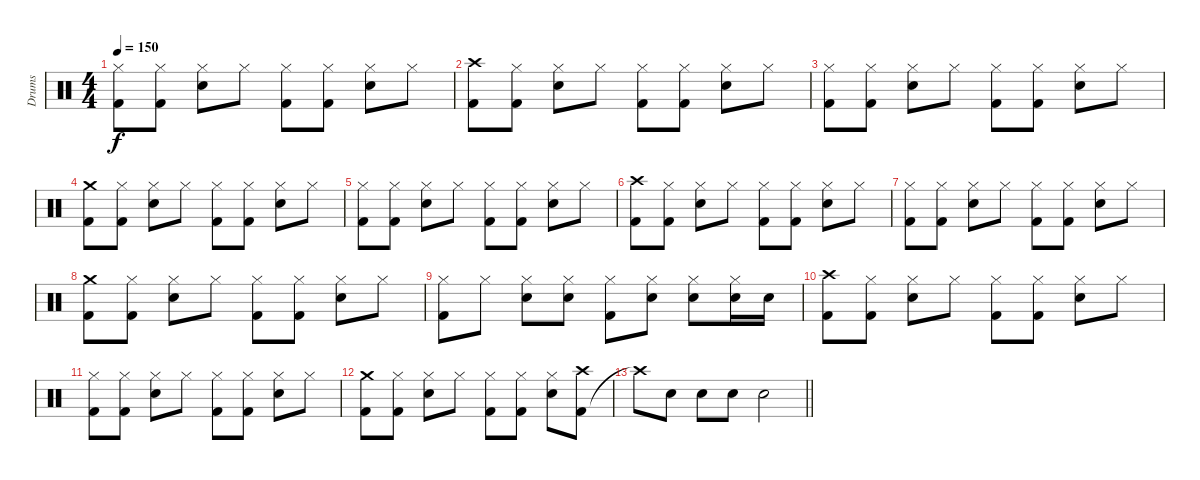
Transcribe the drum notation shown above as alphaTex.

\track ("Drums" "Drums") {instrument percussion}
\staff {score}
\articulation defaults
\ts (4 4)
\tempo 150
\clef neutral
\ks c
("Kick (hit) 2" "Hi-Hat (closed)").8{dy f} ("Kick (hit) 2" "Hi-Hat (closed)").8 ("Hi-Hat (closed)" "Snare (hit) 2").8 "Hi-Hat (closed)".8 ("Kick (hit) 2" "Hi-Hat (closed)").8 ("Kick (hit) 2" "Hi-Hat (closed)").8 ("Hi-Hat (closed)" "Snare (hit) 2").8 "Hi-Hat (closed)".8 |
("Kick (hit) 2" "Crash high (hit)").8 ("Kick (hit) 2" "Hi-Hat (closed)").8 ("Hi-Hat (closed)" "Snare (hit) 2").8 "Hi-Hat (closed)".8 ("Kick (hit) 2" "Hi-Hat (closed)").8 ("Kick (hit) 2" "Hi-Hat (closed)").8 ("Hi-Hat (closed)" "Snare (hit) 2").8 "Hi-Hat (closed)".8 |
("Kick (hit) 2" "Hi-Hat (closed)").8 ("Kick (hit) 2" "Hi-Hat (closed)").8 ("Hi-Hat (closed)" "Snare (hit) 2").8 "Hi-Hat (closed)".8 ("Kick (hit) 2" "Hi-Hat (closed)").8 ("Kick (hit) 2" "Hi-Hat (closed)").8 ("Hi-Hat (closed)" "Snare (hit) 2").8 "Hi-Hat (closed)".8 |
("Kick (hit) 2" "Crash medium (hit)").8 ("Kick (hit) 2" "Hi-Hat (closed)").8 ("Hi-Hat (closed)" "Snare (hit) 2").8 "Hi-Hat (closed)".8 ("Kick (hit) 2" "Hi-Hat (closed)").8 ("Kick (hit) 2" "Hi-Hat (closed)").8 ("Hi-Hat (closed)" "Snare (hit) 2").8 "Hi-Hat (closed)".8 |
("Kick (hit) 2" "Hi-Hat (closed)").8 ("Kick (hit) 2" "Hi-Hat (closed)").8 ("Hi-Hat (closed)" "Snare (hit) 2").8 "Hi-Hat (closed)".8 ("Kick (hit) 2" "Hi-Hat (closed)").8 ("Kick (hit) 2" "Hi-Hat (closed)").8 ("Hi-Hat (closed)" "Snare (hit) 2").8 "Hi-Hat (closed)".8 |
("Kick (hit) 2" "Crash high (hit)").8 ("Kick (hit) 2" "Hi-Hat (closed)").8 ("Hi-Hat (closed)" "Snare (hit) 2").8 "Hi-Hat (closed)".8 ("Kick (hit) 2" "Hi-Hat (closed)").8 ("Kick (hit) 2" "Hi-Hat (closed)").8 ("Hi-Hat (closed)" "Snare (hit) 2").8 "Hi-Hat (closed)".8 |
("Kick (hit) 2" "Hi-Hat (closed)").8 ("Kick (hit) 2" "Hi-Hat (closed)").8 ("Hi-Hat (closed)" "Snare (hit) 2").8 "Hi-Hat (closed)".8 ("Kick (hit) 2" "Hi-Hat (closed)").8 ("Kick (hit) 2" "Hi-Hat (closed)").8 ("Hi-Hat (closed)" "Snare (hit) 2").8 "Hi-Hat (closed)".8 |
("Kick (hit) 2" "Crash medium (hit)").8 ("Kick (hit) 2" "Hi-Hat (closed)").8 ("Hi-Hat (closed)" "Snare (hit) 2").8 "Hi-Hat (closed)".8 ("Kick (hit) 2" "Hi-Hat (closed)").8 ("Kick (hit) 2" "Hi-Hat (closed)").8 ("Hi-Hat (closed)" "Snare (hit) 2").8 "Hi-Hat (closed)".8 |
("Kick (hit) 2" "Hi-Hat (closed)").8 "Hi-Hat (closed)".8 ("Hi-Hat (closed)" "Snare (hit) 2").8 ("Hi-Hat (closed)" "Snare (hit) 2").8 ("Kick (hit) 2" "Hi-Hat (closed)").8 ("Hi-Hat (closed)" "Snare (hit) 2").8 ("Hi-Hat (closed)" "Snare (hit) 2").8 ("Hi-Hat (closed)" "Snare (hit) 2").16 "Snare (hit) 2".16 |
("Kick (hit) 2" "Crash high (hit)").8 ("Kick (hit) 2" "Hi-Hat (closed)").8 ("Hi-Hat (closed)" "Snare (hit) 2").8 "Hi-Hat (closed)".8 ("Kick (hit) 2" "Hi-Hat (closed)").8 ("Kick (hit) 2" "Hi-Hat (closed)").8 ("Hi-Hat (closed)" "Snare (hit) 2").8 "Hi-Hat (closed)".8 |
("Kick (hit) 2" "Hi-Hat (closed)").8 ("Kick (hit) 2" "Hi-Hat (closed)").8 ("Hi-Hat (closed)" "Snare (hit) 2").8 "Hi-Hat (closed)".8 ("Kick (hit) 2" "Hi-Hat (closed)").8 ("Kick (hit) 2" "Hi-Hat (closed)").8 ("Hi-Hat (closed)" "Snare (hit) 2").8 "Hi-Hat (closed)".8 |
("Kick (hit) 2" "Crash medium (hit)").8 ("Kick (hit) 2" "Hi-Hat (closed)").8 ("Hi-Hat (closed)" "Snare (hit) 2").8 "Hi-Hat (closed)".8 ("Kick (hit) 2" "Hi-Hat (closed)").8 ("Kick (hit) 2" "Hi-Hat (closed)").8 ("Hi-Hat (closed)" "Snare (hit) 2").8 ("Kick (hit) 2" "Crash high (hit)").8 |
\barLineRight lightlight "Crash high (hit)"{t}.8 "Snare (hit) 2".8 "Snare (hit) 2".8 "Snare (hit) 2".8 "Snare (hit) 2".2
